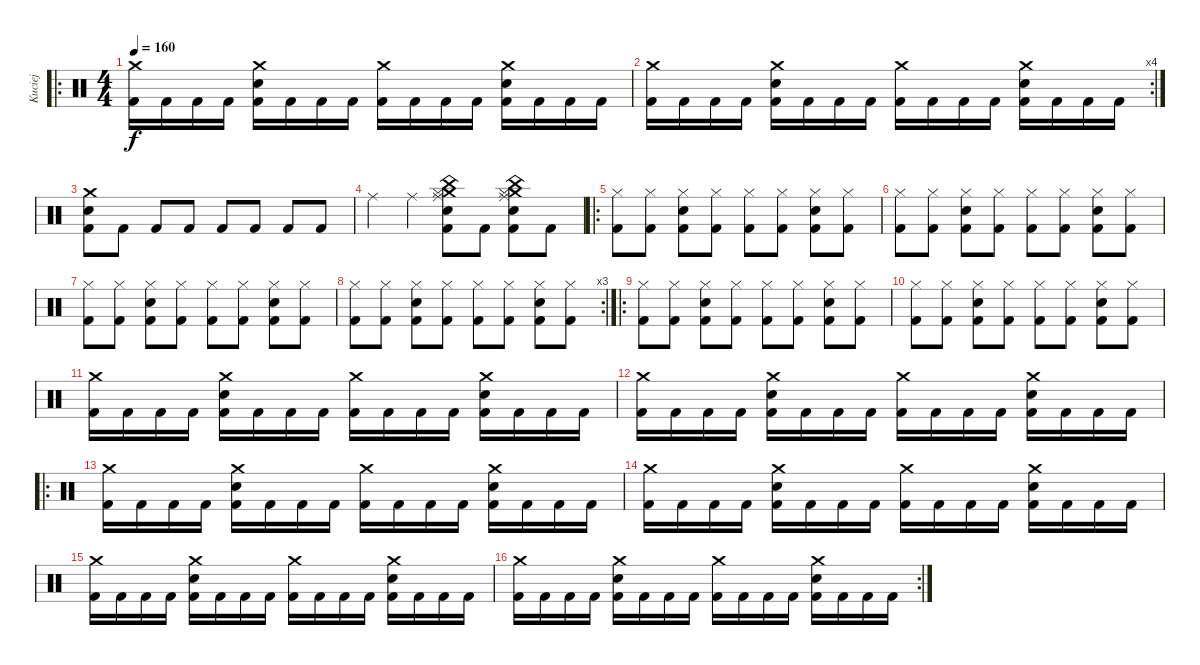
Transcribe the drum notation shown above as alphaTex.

\track ("Kuciej" "Kuciej") {instrument percussion}
\staff {score}
\articulation defaults
\ro
\ts (4 4)
\tempo 160
\clef neutral
\ks c
("Crash medium (hit)" "Kick (hit) 2").16{dy f} "Kick (hit) 2".16 "Kick (hit) 2".16 "Kick (hit) 2".16 ("Crash medium (hit)" "Electric Snare (hit)" "Kick (hit) 2").16 "Kick (hit) 2".16 "Kick (hit) 2".16 "Kick (hit) 2".16 ("Crash medium (hit)" "Kick (hit) 2").16 "Kick (hit) 2".16 "Kick (hit) 2".16 "Kick (hit) 2".16 ("Crash medium (hit)" "Electric Snare (hit)" "Kick (hit) 2").16 "Kick (hit) 2".16 "Kick (hit) 2".16 "Kick (hit) 2".16 |
\rc 4
("Crash medium (hit)" "Kick (hit) 2").16 "Kick (hit) 2".16 "Kick (hit) 2".16 "Kick (hit) 2".16 ("Crash medium (hit)" "Electric Snare (hit)" "Kick (hit) 2").16 "Kick (hit) 2".16 "Kick (hit) 2".16 "Kick (hit) 2".16 ("Crash medium (hit)" "Kick (hit) 2").16 "Kick (hit) 2".16 "Kick (hit) 2".16 "Kick (hit) 2".16 ("Crash medium (hit)" "Electric Snare (hit)" "Kick (hit) 2").16 "Kick (hit) 2".16 "Kick (hit) 2".16 "Kick (hit) 2".16 |
("Crash medium (hit)" "Electric Snare (hit)" "Kick (hit) 2").8 "Kick (hit) 2".8 "Kick (hit) 2".8 "Kick (hit) 2".8 "Kick (hit) 2".8 "Kick (hit) 2".8 "Kick (hit) 2".8 "Kick (hit) 2".8 |
"Ride (middle)".4 "Ride (middle)".4 ("China (hit)" "Ride (middle)" "Crash medium (hit)" "Hi-Hat (closed)" "Electric Snare (hit)" "Kick (hit) 2").8 "Kick (hit) 2".8 ("China (hit)" "Ride (middle)" "Crash medium (hit)" "Hi-Hat (closed)" "Electric Snare (hit)" "Kick (hit) 2").8 "Kick (hit) 2".8 |
\ro
("Hi-Hat (closed)" "Kick (hit) 2").8 ("Hi-Hat (closed)" "Kick (hit) 2").8 ("Hi-Hat (closed)" "Electric Snare (hit)" "Kick (hit) 2").8 ("Hi-Hat (closed)" "Kick (hit) 2").8 ("Hi-Hat (closed)" "Kick (hit) 2").8 ("Hi-Hat (closed)" "Kick (hit) 2").8 ("Hi-Hat (closed)" "Electric Snare (hit)" "Kick (hit) 2").8 ("Hi-Hat (closed)" "Kick (hit) 2").8 |
("Hi-Hat (closed)" "Kick (hit) 2").8 ("Hi-Hat (closed)" "Kick (hit) 2").8 ("Hi-Hat (closed)" "Electric Snare (hit)" "Kick (hit) 2").8 ("Hi-Hat (closed)" "Kick (hit) 2").8 ("Hi-Hat (closed)" "Kick (hit) 2").8 ("Hi-Hat (closed)" "Kick (hit) 2").8 ("Hi-Hat (closed)" "Electric Snare (hit)" "Kick (hit) 2").8 ("Hi-Hat (closed)" "Kick (hit) 2").8 |
("Hi-Hat (closed)" "Kick (hit) 2").8 ("Hi-Hat (closed)" "Kick (hit) 2").8 ("Hi-Hat (closed)" "Electric Snare (hit)" "Kick (hit) 2").8 ("Hi-Hat (closed)" "Kick (hit) 2").8 ("Hi-Hat (closed)" "Kick (hit) 2").8 ("Hi-Hat (closed)" "Kick (hit) 2").8 ("Hi-Hat (closed)" "Electric Snare (hit)" "Kick (hit) 2").8 ("Hi-Hat (closed)" "Kick (hit) 2").8 |
\rc 3
("Hi-Hat (closed)" "Kick (hit) 2").8 ("Hi-Hat (closed)" "Kick (hit) 2").8 ("Hi-Hat (closed)" "Electric Snare (hit)" "Kick (hit) 2").8 ("Hi-Hat (closed)" "Kick (hit) 2").8 ("Hi-Hat (closed)" "Kick (hit) 2").8 ("Hi-Hat (closed)" "Kick (hit) 2").8 ("Hi-Hat (closed)" "Electric Snare (hit)" "Kick (hit) 2").8 ("Hi-Hat (closed)" "Kick (hit) 2").8 |
\ro
("Hi-Hat (closed)" "Kick (hit) 2").8 ("Hi-Hat (closed)" "Kick (hit) 2").8 ("Hi-Hat (closed)" "Electric Snare (hit)" "Kick (hit) 2").8 ("Hi-Hat (closed)" "Kick (hit) 2").8 ("Hi-Hat (closed)" "Kick (hit) 2").8 ("Hi-Hat (closed)" "Kick (hit) 2").8 ("Hi-Hat (closed)" "Electric Snare (hit)" "Kick (hit) 2").8 ("Hi-Hat (closed)" "Kick (hit) 2").8 |
("Hi-Hat (closed)" "Kick (hit) 2").8 ("Hi-Hat (closed)" "Kick (hit) 2").8 ("Hi-Hat (closed)" "Electric Snare (hit)" "Kick (hit) 2").8 ("Hi-Hat (closed)" "Kick (hit) 2").8 ("Hi-Hat (closed)" "Kick (hit) 2").8 ("Hi-Hat (closed)" "Kick (hit) 2").8 ("Hi-Hat (closed)" "Electric Snare (hit)" "Kick (hit) 2").8 ("Hi-Hat (closed)" "Kick (hit) 2").8 |
("Crash medium (hit)" "Kick (hit) 2").16 "Kick (hit) 2".16 "Kick (hit) 2".16 "Kick (hit) 2".16 ("Crash medium (hit)" "Electric Snare (hit)" "Kick (hit) 2").16 "Kick (hit) 2".16 "Kick (hit) 2".16 "Kick (hit) 2".16 ("Crash medium (hit)" "Kick (hit) 2").16 "Kick (hit) 2".16 "Kick (hit) 2".16 "Kick (hit) 2".16 ("Crash medium (hit)" "Electric Snare (hit)" "Kick (hit) 2").16 "Kick (hit) 2".16 "Kick (hit) 2".16 "Kick (hit) 2".16 |
("Crash medium (hit)" "Kick (hit) 2").16 "Kick (hit) 2".16 "Kick (hit) 2".16 "Kick (hit) 2".16 ("Crash medium (hit)" "Electric Snare (hit)" "Kick (hit) 2").16 "Kick (hit) 2".16 "Kick (hit) 2".16 "Kick (hit) 2".16 ("Crash medium (hit)" "Kick (hit) 2").16 "Kick (hit) 2".16 "Kick (hit) 2".16 "Kick (hit) 2".16 ("Crash medium (hit)" "Electric Snare (hit)" "Kick (hit) 2").16 "Kick (hit) 2".16 "Kick (hit) 2".16 "Kick (hit) 2".16 |
\ro
("Crash medium (hit)" "Kick (hit) 2").16 "Kick (hit) 2".16 "Kick (hit) 2".16 "Kick (hit) 2".16 ("Crash medium (hit)" "Electric Snare (hit)" "Kick (hit) 2").16 "Kick (hit) 2".16 "Kick (hit) 2".16 "Kick (hit) 2".16 ("Crash medium (hit)" "Kick (hit) 2").16 "Kick (hit) 2".16 "Kick (hit) 2".16 "Kick (hit) 2".16 ("Crash medium (hit)" "Electric Snare (hit)" "Kick (hit) 2").16 "Kick (hit) 2".16 "Kick (hit) 2".16 "Kick (hit) 2".16 |
("Crash medium (hit)" "Kick (hit) 2").16 "Kick (hit) 2".16 "Kick (hit) 2".16 "Kick (hit) 2".16 ("Crash medium (hit)" "Electric Snare (hit)" "Kick (hit) 2").16 "Kick (hit) 2".16 "Kick (hit) 2".16 "Kick (hit) 2".16 ("Crash medium (hit)" "Kick (hit) 2").16 "Kick (hit) 2".16 "Kick (hit) 2".16 "Kick (hit) 2".16 ("Crash medium (hit)" "Electric Snare (hit)" "Kick (hit) 2").16 "Kick (hit) 2".16 "Kick (hit) 2".16 "Kick (hit) 2".16 |
("Crash medium (hit)" "Kick (hit) 2").16 "Kick (hit) 2".16 "Kick (hit) 2".16 "Kick (hit) 2".16 ("Crash medium (hit)" "Electric Snare (hit)" "Kick (hit) 2").16 "Kick (hit) 2".16 "Kick (hit) 2".16 "Kick (hit) 2".16 ("Crash medium (hit)" "Kick (hit) 2").16 "Kick (hit) 2".16 "Kick (hit) 2".16 "Kick (hit) 2".16 ("Crash medium (hit)" "Electric Snare (hit)" "Kick (hit) 2").16 "Kick (hit) 2".16 "Kick (hit) 2".16 "Kick (hit) 2".16 |
\rc 2
("Crash medium (hit)" "Kick (hit) 2").16 "Kick (hit) 2".16 "Kick (hit) 2".16 "Kick (hit) 2".16 ("Crash medium (hit)" "Electric Snare (hit)" "Kick (hit) 2").16 "Kick (hit) 2".16 "Kick (hit) 2".16 "Kick (hit) 2".16 ("Crash medium (hit)" "Kick (hit) 2").16 "Kick (hit) 2".16 "Kick (hit) 2".16 "Kick (hit) 2".16 ("Crash medium (hit)" "Electric Snare (hit)" "Kick (hit) 2").16 "Kick (hit) 2".16 "Kick (hit) 2".16 "Kick (hit) 2".16
